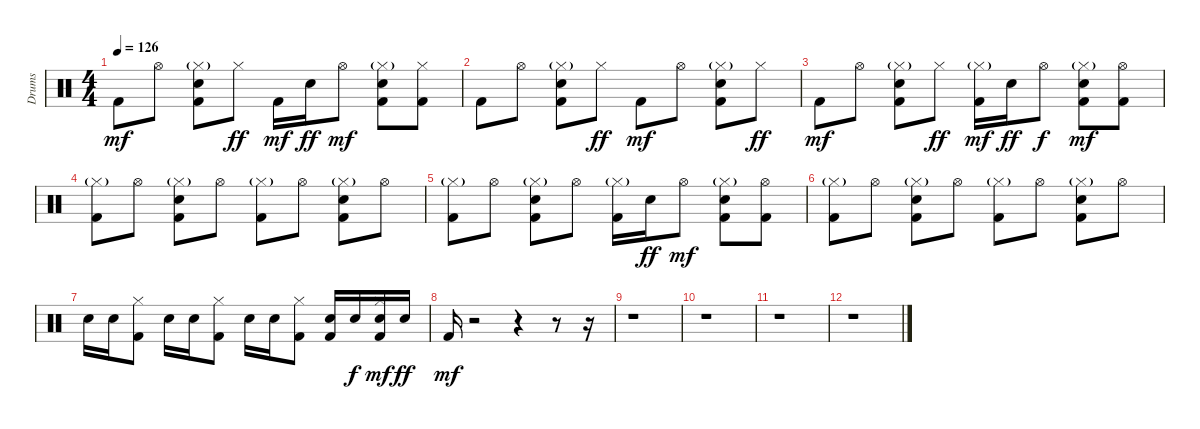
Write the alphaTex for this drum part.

\track ("Drums" "Drums") {instrument percussion}
\staff {score}
\articulation defaults
\ts (4 4)
\tempo 126
\clef neutral
\ks c "Kick (hit) 2".8{dy mf} "Hi-Hat (open)".8
("Hi-Hat (closed)"{g} "Electric Snare (hit)" "Kick (hit) 2").8 "Hi-Hat (closed)".8{dy ff} "Kick (hit) 2".16{dy mf} "Electric Snare (hit)".16{dy ff} "Hi-Hat (open)".8{dy mf} ("Hi-Hat (closed)"{g} "Electric Snare (hit)" "Kick (hit) 2").8 ("Hi-Hat (closed)" "Kick (hit) 2").8 |
"Kick (hit) 2".8 "Hi-Hat (open)".8 ("Hi-Hat (closed)"{g} "Electric Snare (hit)" "Kick (hit) 2").8 "Hi-Hat (closed)".8{dy ff} "Kick (hit) 2".8{dy mf} "Hi-Hat (open)".8 ("Hi-Hat (closed)"{g} "Electric Snare (hit)" "Kick (hit) 2").8 "Hi-Hat (closed)".8{dy ff} |
"Kick (hit) 2".8{dy mf} "Hi-Hat (open)".8 ("Hi-Hat (closed)"{g} "Electric Snare (hit)" "Kick (hit) 2").8 "Hi-Hat (closed)".8{dy ff} ("Hi-Hat (closed)"{g} "Kick (hit) 2").16{dy mf} "Electric Snare (hit)".16{dy ff} "Hi-Hat (open)".8{dy f} ("Hi-Hat (closed)"{g} "Electric Snare (hit)" "Kick (hit) 2").8{dy mf} ("Hi-Hat (open)" "Kick (hit) 2").8 |
("Hi-Hat (closed)"{g} "Kick (hit) 2").8 "Hi-Hat (open)".8 ("Hi-Hat (closed)"{g} "Electric Snare (hit)" "Kick (hit) 2").8 "Hi-Hat (open)".8 ("Hi-Hat (closed)"{g} "Kick (hit) 2").8 "Hi-Hat (open)".8 ("Hi-Hat (closed)"{g} "Electric Snare (hit)" "Kick (hit) 2").8 "Hi-Hat (open)".8 |
("Hi-Hat (closed)"{g} "Kick (hit) 2").8 "Hi-Hat (open)".8 ("Hi-Hat (closed)"{g} "Electric Snare (hit)" "Kick (hit) 2").8 "Hi-Hat (open)".8 ("Hi-Hat (closed)"{g} "Kick (hit) 2").16 "Electric Snare (hit)".16{dy ff} "Hi-Hat (open)".8{dy mf} ("Hi-Hat (closed)"{g} "Electric Snare (hit)" "Kick (hit) 2").8 ("Hi-Hat (open)" "Kick (hit) 2").8 |
("Hi-Hat (closed)"{g} "Kick (hit) 2").8 "Hi-Hat (open)".8 ("Hi-Hat (closed)"{g} "Electric Snare (hit)" "Kick (hit) 2").8 "Hi-Hat (open)".8 ("Hi-Hat (closed)"{g} "Kick (hit) 2").8 "Hi-Hat (open)".8 ("Hi-Hat (closed)"{g} "Electric Snare (hit)" "Kick (hit) 2").8 "Hi-Hat (open)".8 |
"Electric Snare (hit)".16 "Electric Snare (hit)".16 ("Hi-Hat (closed)" "Kick (hit) 2").8 "Electric Snare (hit)".16 "Electric Snare (hit)".16 ("Hi-Hat (closed)" "Kick (hit) 2").8 "Electric Snare (hit)".16 "Electric Snare (hit)".16 ("Hi-Hat (closed)" "Kick (hit) 2").8 ("Electric Snare (hit)" "Kick (hit) 2").16 "Electric Snare (hit)".16{dy f} ("Hi-Hat (closed)" "Electric Snare (hit)" "Kick (hit) 2").16{dy mf} "Electric Snare (hit)".16{dy ff} |
"Kick (hit) 2".16{dy mf} r.2 r.4 r.8 r.16 |
r.1 |
r.1 |
r.1 |
r.1
